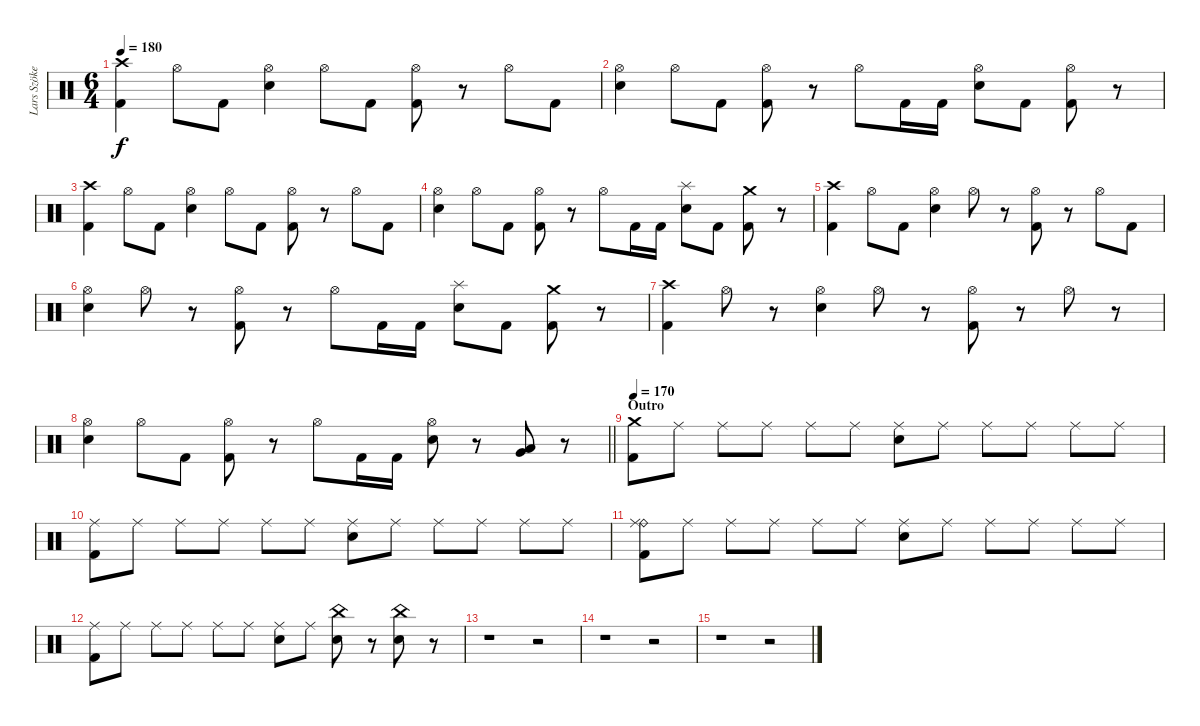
\track ("Lars Szöke" "Lars Szöke") {instrument percussion}
\staff {score}
\articulation defaults
\ts (6 4)
\tempo 180
\clef neutral
\ks c
("Crash high (hit)" "Kick (hit) 2").4{dy f} "Hi-Hat (open)".8 "Kick (hit) 2".8 ("Hi-Hat (open)" "Snare (hit) 2").4 "Hi-Hat (open)".8 "Kick (hit) 2".8 ("Hi-Hat (open)" "Kick (hit) 2").8 r.8 "Hi-Hat (open)".8 "Kick (hit) 2".8 |
("Hi-Hat (open)" "Snare (hit) 2").4 "Hi-Hat (open)".8 "Kick (hit) 2".8 ("Hi-Hat (open)" "Kick (hit) 2").8 r.8 "Hi-Hat (open)".8 "Kick (hit) 2".16 "Kick (hit) 2".16 ("Hi-Hat (open)" "Snare (hit) 2").8 "Kick (hit) 2".8 ("Hi-Hat (open)" "Kick (hit) 2").8 r.8 |
("Crash high (hit)" "Kick (hit) 2").4 "Hi-Hat (open)".8 "Kick (hit) 2".8 ("Hi-Hat (open)" "Snare (hit) 2").4 "Hi-Hat (open)".8 "Kick (hit) 2".8 ("Hi-Hat (open)" "Kick (hit) 2").8 r.8 "Hi-Hat (open)".8 "Kick (hit) 2".8 |
("Hi-Hat (open)" "Snare (hit) 2").4 "Hi-Hat (open)".8 "Kick (hit) 2".8 ("Hi-Hat (open)" "Kick (hit) 2").8 r.8 "Hi-Hat (open)".8 "Kick (hit) 2".16 "Kick (hit) 2".16 ("Splash (hit)" "Snare (hit) 2").8 "Kick (hit) 2".8 ("Crash medium (hit)" "Kick (hit) 2").8 r.8 |
("Crash high (hit)" "Kick (hit) 2").4 "Hi-Hat (open)".8 "Kick (hit) 2".8 ("Hi-Hat (open)" "Snare (hit) 2").4 "Hi-Hat (open)".8 r.8 ("Hi-Hat (open)" "Kick (hit) 2").8 r.8 "Hi-Hat (open)".8 "Kick (hit) 2".8 |
("Hi-Hat (open)" "Snare (hit) 2").4 "Hi-Hat (open)".8 r.8 ("Hi-Hat (open)" "Kick (hit) 2").8 r.8 "Hi-Hat (open)".8 "Kick (hit) 2".16 "Kick (hit) 2".16 ("Splash (hit)" "Snare (hit) 2").8 "Kick (hit) 2".8 ("Crash medium (hit)" "Kick (hit) 2").8 r.8 |
("Crash high (hit)" "Kick (hit) 2").4 "Hi-Hat (open)".8 r.8 ("Hi-Hat (open)" "Snare (hit) 2").4 "Hi-Hat (open)".8 r.8 ("Hi-Hat (open)" "Kick (hit) 2").8 r.8 "Hi-Hat (open)".8 r.8 |
\barLineRight lightlight
("Hi-Hat (open)" "Snare (hit) 2").4 "Hi-Hat (open)".8 "Kick (hit) 2".8 ("Hi-Hat (open)" "Kick (hit) 2").8 r.8 "Hi-Hat (open)".8 "Kick (hit) 2".16 "Kick (hit) 2".16 ("Hi-Hat (open)" "Snare (hit) 2").8 r.8 ("Very Low Tom (hit)" "Low Floor Tom (hit)").8 r.8 |
\section ("" "Outro")
\tempo 170
("Crash medium (hit)" "Kick (hit) 2").8 "Ride (middle)".8 "Ride (middle)".8 "Ride (middle)".8 "Ride (middle)".8 "Ride (middle)".8 ("Ride (middle)" "Snare (hit) 2").8 "Ride (middle)".8 "Ride (middle)".8 "Ride (middle)".8 "Ride (middle)".8 "Ride (middle)".8 |
("Ride (middle)" "Kick (hit) 2").8 "Ride (middle)".8 "Ride (middle)".8 "Ride (middle)".8 "Ride (middle)".8 "Ride (middle)".8 ("Ride (middle)" "Snare (hit) 2").8 "Ride (middle)".8 "Ride (middle)".8 "Ride (middle)".8 "Ride (middle)".8 "Ride (middle)".8 |
("Ride (bell)" "Ride (middle)" "Kick (hit) 2").8 "Ride (middle)".8 "Ride (middle)".8 "Ride (middle)".8 "Ride (middle)".8 "Ride (middle)".8 ("Ride (middle)" "Snare (hit) 2").8 "Ride (middle)".8 "Ride (middle)".8 "Ride (middle)".8 "Ride (middle)".8 "Ride (middle)".8 |
("Ride (middle)" "Kick (hit) 2").8 "Ride (middle)".8 "Ride (middle)".8 "Ride (middle)".8 "Ride (middle)".8 "Ride (middle)".8 ("Ride (middle)" "Snare (hit) 2").8 "Ride (middle)".8 ("China (hit)" "Snare (hit) 2").8 r.8 ("China (hit)" "Snare (hit) 2").8 r.8 |
r.1 r.2 |
r.1 r.2 |
r.1 r.2
